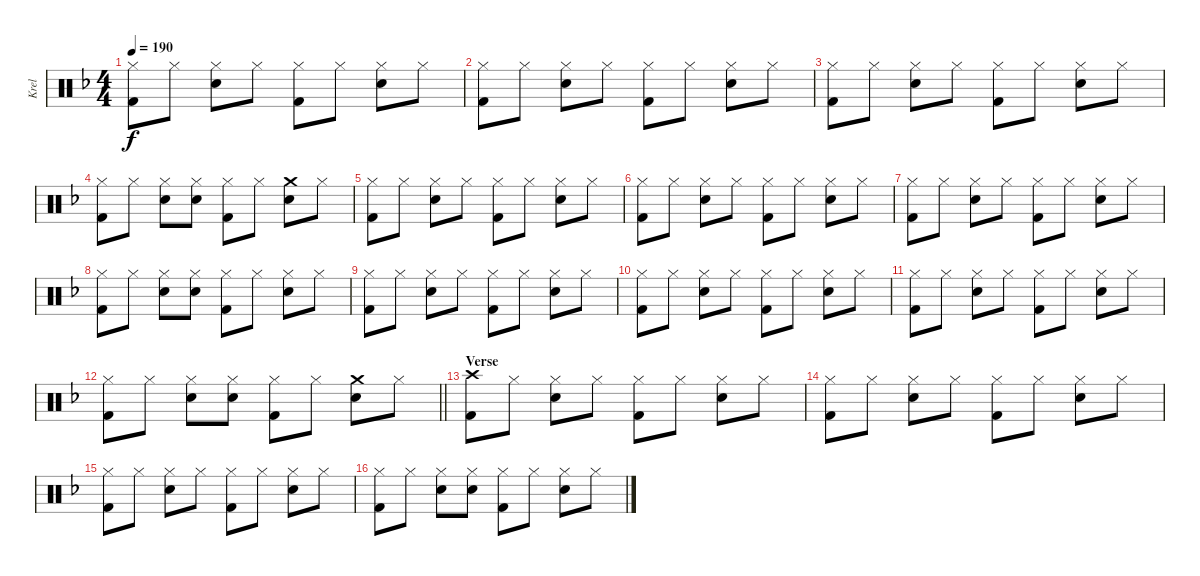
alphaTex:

\track ("Krel" "Krel") {instrument percussion}
\staff {score}
\articulation defaults
\ts (4 4)
\tempo 190
\clef neutral
\ks f
("Hi-Hat (closed)" "Kick (hit) 2").8{dy f} "Hi-Hat (closed)".8 ("Hi-Hat (closed)" "Snare (hit) 2").8 "Hi-Hat (closed)".8 ("Hi-Hat (closed)" "Kick (hit) 2").8 "Hi-Hat (closed)".8 ("Hi-Hat (closed)" "Snare (hit) 2").8 "Hi-Hat (closed)".8 |
("Hi-Hat (closed)" "Kick (hit) 2").8 "Hi-Hat (closed)".8 ("Hi-Hat (closed)" "Snare (hit) 2").8 "Hi-Hat (closed)".8 ("Hi-Hat (closed)" "Kick (hit) 2").8 "Hi-Hat (closed)".8 ("Hi-Hat (closed)" "Snare (hit) 2").8 "Hi-Hat (closed)".8 |
("Hi-Hat (closed)" "Kick (hit) 2").8 "Hi-Hat (closed)".8 ("Hi-Hat (closed)" "Snare (hit) 2").8 "Hi-Hat (closed)".8 ("Hi-Hat (closed)" "Kick (hit) 2").8 "Hi-Hat (closed)".8 ("Hi-Hat (closed)" "Snare (hit) 2").8 "Hi-Hat (closed)".8 |
("Hi-Hat (closed)" "Kick (hit) 2").8 "Hi-Hat (closed)".8 ("Hi-Hat (closed)" "Snare (hit) 2").8 ("Hi-Hat (closed)" "Snare (hit) 2").8 ("Hi-Hat (closed)" "Kick (hit) 2").8 "Hi-Hat (closed)".8 ("Crash medium (hit)" "Snare (hit) 2").8 "Hi-Hat (closed)".8 |
("Hi-Hat (closed)" "Kick (hit) 2").8 "Hi-Hat (closed)".8 ("Hi-Hat (closed)" "Snare (hit) 2").8 "Hi-Hat (closed)".8 ("Hi-Hat (closed)" "Kick (hit) 2").8 "Hi-Hat (closed)".8 ("Hi-Hat (closed)" "Snare (hit) 2").8 "Hi-Hat (closed)".8 |
("Hi-Hat (closed)" "Kick (hit) 2").8 "Hi-Hat (closed)".8 ("Hi-Hat (closed)" "Snare (hit) 2").8 "Hi-Hat (closed)".8 ("Hi-Hat (closed)" "Kick (hit) 2").8 "Hi-Hat (closed)".8 ("Hi-Hat (closed)" "Snare (hit) 2").8 "Hi-Hat (closed)".8 |
("Hi-Hat (closed)" "Kick (hit) 2").8 "Hi-Hat (closed)".8 ("Hi-Hat (closed)" "Snare (hit) 2").8 "Hi-Hat (closed)".8 ("Hi-Hat (closed)" "Kick (hit) 2").8 "Hi-Hat (closed)".8 ("Hi-Hat (closed)" "Snare (hit) 2").8 "Hi-Hat (closed)".8 |
("Hi-Hat (closed)" "Kick (hit) 2").8 "Hi-Hat (closed)".8 ("Hi-Hat (closed)" "Snare (hit) 2").8 ("Hi-Hat (closed)" "Snare (hit) 2").8 ("Hi-Hat (closed)" "Kick (hit) 2").8 "Hi-Hat (closed)".8 ("Hi-Hat (closed)" "Snare (hit) 2").8 "Hi-Hat (closed)".8 |
("Hi-Hat (closed)" "Kick (hit) 2").8 "Hi-Hat (closed)".8 ("Hi-Hat (closed)" "Snare (hit) 2").8 "Hi-Hat (closed)".8 ("Hi-Hat (closed)" "Kick (hit) 2").8 "Hi-Hat (closed)".8 ("Hi-Hat (closed)" "Snare (hit) 2").8 "Hi-Hat (closed)".8 |
("Hi-Hat (closed)" "Kick (hit) 2").8 "Hi-Hat (closed)".8 ("Hi-Hat (closed)" "Snare (hit) 2").8 "Hi-Hat (closed)".8 ("Hi-Hat (closed)" "Kick (hit) 2").8 "Hi-Hat (closed)".8 ("Hi-Hat (closed)" "Snare (hit) 2").8 "Hi-Hat (closed)".8 |
("Hi-Hat (closed)" "Kick (hit) 2").8 "Hi-Hat (closed)".8 ("Hi-Hat (closed)" "Snare (hit) 2").8 "Hi-Hat (closed)".8 ("Hi-Hat (closed)" "Kick (hit) 2").8 "Hi-Hat (closed)".8 ("Hi-Hat (closed)" "Snare (hit) 2").8 "Hi-Hat (closed)".8 |
\barLineRight lightlight
("Hi-Hat (closed)" "Kick (hit) 2").8 "Hi-Hat (closed)".8 ("Hi-Hat (closed)" "Snare (hit) 2").8 ("Hi-Hat (closed)" "Snare (hit) 2").8 ("Hi-Hat (closed)" "Kick (hit) 2").8 "Hi-Hat (closed)".8 ("Crash medium (hit)" "Snare (hit) 2").8 "Hi-Hat (closed)".8 |
\section ("" "Verse")
("Crash high (hit)" "Kick (hit) 2").8 "Hi-Hat (closed)".8 ("Hi-Hat (closed)" "Snare (hit) 2").8 "Hi-Hat (closed)".8 ("Hi-Hat (closed)" "Kick (hit) 2").8 "Hi-Hat (closed)".8 ("Hi-Hat (closed)" "Snare (hit) 2").8 "Hi-Hat (closed)".8 |
("Hi-Hat (closed)" "Kick (hit) 2").8 "Hi-Hat (closed)".8 ("Hi-Hat (closed)" "Snare (hit) 2").8 "Hi-Hat (closed)".8 ("Hi-Hat (closed)" "Kick (hit) 2").8 "Hi-Hat (closed)".8 ("Hi-Hat (closed)" "Snare (hit) 2").8 "Hi-Hat (closed)".8 |
("Hi-Hat (closed)" "Kick (hit) 2").8 "Hi-Hat (closed)".8 ("Hi-Hat (closed)" "Snare (hit) 2").8 "Hi-Hat (closed)".8 ("Hi-Hat (closed)" "Kick (hit) 2").8 "Hi-Hat (closed)".8 ("Hi-Hat (closed)" "Snare (hit) 2").8 "Hi-Hat (closed)".8 |
("Hi-Hat (closed)" "Kick (hit) 2").8 "Hi-Hat (closed)".8 ("Hi-Hat (closed)" "Snare (hit) 2").8 ("Hi-Hat (closed)" "Snare (hit) 2").8 ("Hi-Hat (closed)" "Kick (hit) 2").8 "Hi-Hat (closed)".8 ("Hi-Hat (closed)" "Snare (hit) 2").8 "Hi-Hat (closed)".8
